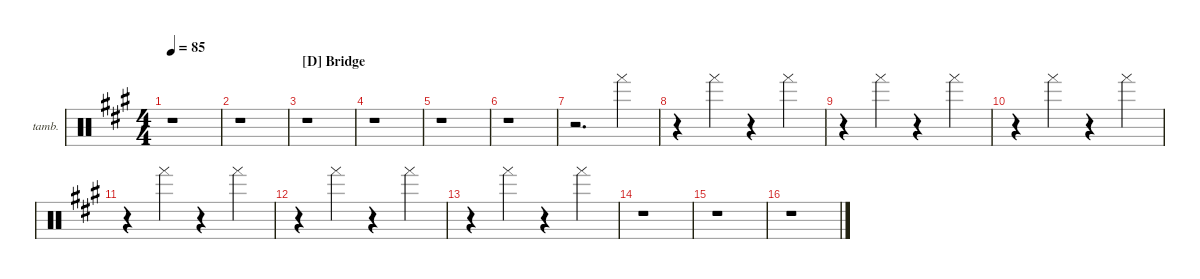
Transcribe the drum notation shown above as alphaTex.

\defaultSystemsLayout 4
\hideDynamics
\bracketExtendMode nobrackets
\firstSystemTrackNameOrientation horizontal
\otherSystemsTrackNameOrientation horizontal
\track ("Tambourine" "tamb.") {instrument percussion}
\staff
\articulation defaults
\ts (4 4)
\tempo 85
\clef neutral
\ks a
r.1{dy f} |
r.1 |
\section ("D" "Bridge")
r.1 |
r.1 |
r.1 |
r.1 |
r.2{d} "Tambourine (hand)"{acc forcenatural}.4 |
r.4 "Tambourine (hand)"{acc forcenatural}.4 r.4 "Tambourine (hand)"{acc forcenatural}.4 |
r.4 "Tambourine (hand)"{acc forcenatural}.4 r.4 "Tambourine (hand)"{acc forcenatural}.4 |
r.4 "Tambourine (hand)"{acc forcenatural}.4 r.4 "Tambourine (hand)"{acc forcenatural}.4 |
r.4 "Tambourine (hand)"{acc forcenatural}.4 r.4 "Tambourine (hand)"{acc forcenatural}.4 |
r.4 "Tambourine (hand)"{acc forcenatural}.4 r.4 "Tambourine (hand)"{acc forcenatural}.4 |
r.4 "Tambourine (hand)"{acc forcenatural}.4 r.4 "Tambourine (hand)"{acc forcenatural}.4 |
r.1 |
r.1 |
r.1
